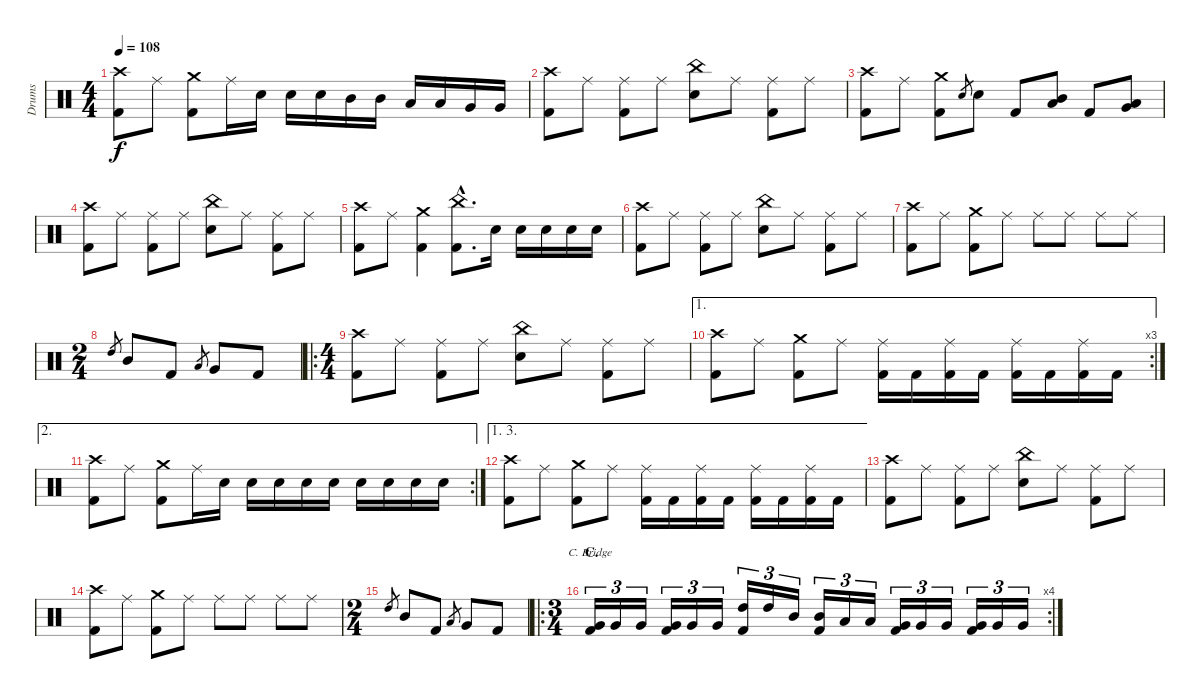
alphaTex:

\track ("Drums" "Drums") {instrument percussion}
\staff {score}
\articulation defaults
\chord ("C. Bridge")
\ts (4 4)
\tempo 108
\clef neutral
\ks c
("Crash high (hit)" "Kick (hit) 2").8{dy f} "Ride (middle)".8 ("Crash medium (hit)" "Kick (hit) 2").8 "Ride (middle)".16 "Electric Snare (hit)".16 "Electric Snare (hit)".16 "Electric Snare (hit)".16 "Mid Tom (hit)".16 "Mid Tom (hit)".16 "Low Tom (hit)".16 "Low Tom (hit)".16 "Very Low Tom (hit)".16 "Very Low Tom (hit)".16 |
("Crash high (hit)" "Kick (hit) 2").8 "Ride (middle)".8 ("Ride (middle)" "Kick (hit) 2").8 "Ride (middle)".8 ("China (hit)" "Electric Snare (hit)").8 "Ride (middle)".8 ("Ride (middle)" "Kick (hit) 2").8 "Ride (middle)".8 |
("Crash high (hit)" "Kick (hit) 2").8 "Ride (middle)".8 ("Crash medium (hit)" "Kick (hit) 2").8 "Electric Snare (hit)".8{gr} "Electric Snare (hit)".8 "Kick (hit) 2".8 ("Mid Tom (hit)" "Low Tom (hit)").8 "Kick (hit) 2".8 ("Low Tom (hit)" "Very Low Tom (hit)").8 |
("Crash high (hit)" "Kick (hit) 2").8 "Ride (middle)".8 ("Ride (middle)" "Kick (hit) 2").8 "Ride (middle)".8 ("China (hit)" "Electric Snare (hit)").8 "Ride (middle)".8 ("Ride (middle)" "Kick (hit) 2").8 "Ride (middle)".8 |
("Crash high (hit)" "Kick (hit) 2").8 "Ride (middle)".8 ("Crash medium (hit)" "Kick (hit) 2").4 ("China (hit)"{hac} "Kick (hit) 2"{hac}).8{d} "Electric Snare (hit)".16 "Electric Snare (hit)".16 "Electric Snare (hit)".16 "Electric Snare (hit)".16 "Electric Snare (hit)".16 |
("Crash high (hit)" "Kick (hit) 2").8 "Ride (middle)".8 ("Ride (middle)" "Kick (hit) 2").8 "Ride (middle)".8 ("China (hit)" "Electric Snare (hit)").8 "Ride (middle)".8 ("Ride (middle)" "Kick (hit) 2").8 "Ride (middle)".8 |
("Crash high (hit)" "Kick (hit) 2").8 "Ride (middle)".8 ("Crash medium (hit)" "Kick (hit) 2").8 "Ride (middle)".8 "Ride (middle)".8 "Ride (middle)".8 "Ride (middle)".8 "Ride (middle)".8 |
\ts (2 4)
"High Tom (hit)".8{gr} "Mid Tom (hit)".8 "Kick (hit) 2".8 "Low Tom (hit)".8{gr} "Very Low Tom (hit)".8 "Kick (hit) 2".8 |
\ro
\ts (4 4)
("Crash high (hit)" "Kick (hit) 2").8 "Ride (middle)".8 ("Ride (middle)" "Kick (hit) 2").8 "Ride (middle)".8 ("China (hit)" "Electric Snare (hit)").8 "Ride (middle)".8 ("Ride (middle)" "Kick (hit) 2").8 "Ride (middle)".8 |
\ae 1
\rc 3
("Crash high (hit)" "Kick (hit) 2").8 "Ride (middle)".8 ("Crash medium (hit)" "Kick (hit) 2").8 "Ride (middle)".8 ("Ride (middle)" "Kick (hit) 2").16 "Kick (hit) 2".16 ("Ride (middle)" "Kick (hit) 2").16 "Kick (hit) 2".16 ("Ride (middle)" "Kick (hit) 2").16 "Kick (hit) 2".16 ("Ride (middle)" "Kick (hit) 2").16 "Kick (hit) 2".16 |
\ae 2
\rc 2
("Crash high (hit)" "Kick (hit) 2").8 "Ride (middle)".8 ("Crash medium (hit)" "Kick (hit) 2").8 "Ride (middle)".16 "Electric Snare (hit)".16 "Electric Snare (hit)".16 "Electric Snare (hit)".16 "Electric Snare (hit)".16 "Electric Snare (hit)".16 "Electric Snare (hit)".16 "Electric Snare (hit)".16 "Electric Snare (hit)".16 "Electric Snare (hit)".16 |
\ae (1 3)
("Crash high (hit)" "Kick (hit) 2").8 "Ride (middle)".8 ("Crash medium (hit)" "Kick (hit) 2").8 "Ride (middle)".8 ("Ride (middle)" "Kick (hit) 2").16 "Kick (hit) 2".16 ("Ride (middle)" "Kick (hit) 2").16 "Kick (hit) 2".16 ("Ride (middle)" "Kick (hit) 2").16 "Kick (hit) 2".16 ("Ride (middle)" "Kick (hit) 2").16 "Kick (hit) 2".16 |
("Crash high (hit)" "Kick (hit) 2").8 "Ride (middle)".8 ("Ride (middle)" "Kick (hit) 2").8 "Ride (middle)".8 ("China (hit)" "Electric Snare (hit)").8 "Ride (middle)".8 ("Ride (middle)" "Kick (hit) 2").8 "Ride (middle)".8 |
("Crash high (hit)" "Kick (hit) 2").8 "Ride (middle)".8 ("Crash medium (hit)" "Kick (hit) 2").8 "Ride (middle)".8 "Ride (middle)".8 "Ride (middle)".8 "Ride (middle)".8 "Ride (middle)".8 |
\ts (2 4)
"High Tom (hit)".8{gr} "Mid Tom (hit)".8 "Kick (hit) 2".8 "Low Tom (hit)".8{gr} "Very Low Tom (hit)".8 "Kick (hit) 2".8 |
\ro
\rc 4
\ts (3 4)
\section ("" "C.")
("Very Low Tom (hit)" "Kick (hit) 2").16{tu (3 2) ch "C. Bridge"} "Very Low Tom (hit)".16{tu (3 2)} "Very Low Tom (hit)".16{tu (3 2)} ("Very Low Tom (hit)" "Kick (hit) 2").16{tu (3 2)} "Very Low Tom (hit)".16{tu (3 2)} "Very Low Tom (hit)".16{tu (3 2)} ("High Tom (hit)" "Kick (hit) 2").16{tu (3 2)} "High Tom (hit)".16{tu (3 2)} "Mid Tom (hit)".16{tu (3 2)} ("Mid Tom (hit)" "Kick (hit) 2").16{tu (3 2)} "Low Tom (hit)".16{tu (3 2)} "Low Tom (hit)".16{tu (3 2)} ("Very Low Tom (hit)" "Kick (hit) 2").16{tu (3 2)} "Very Low Tom (hit)".16{tu (3 2)} "Very Low Tom (hit)".16{tu (3 2)} ("Very Low Tom (hit)" "Kick (hit) 2").16{tu (3 2)} "Very Low Tom (hit)".16{tu (3 2)} "Very Low Tom (hit)".16{tu (3 2)}
